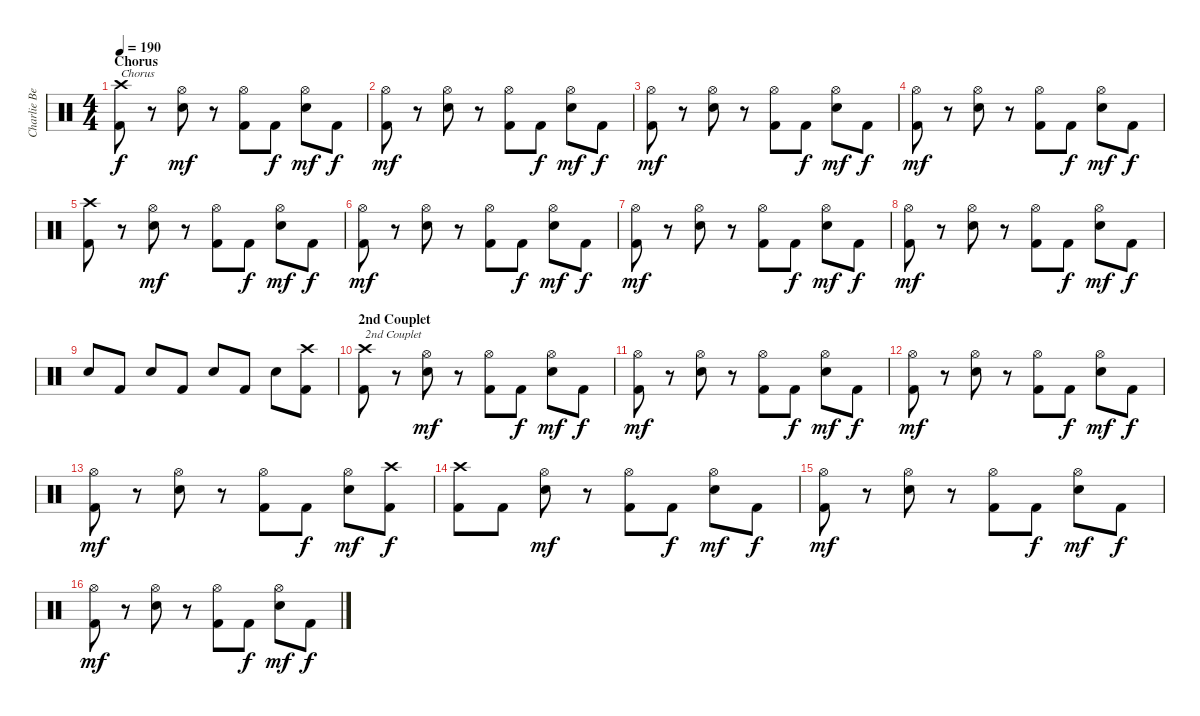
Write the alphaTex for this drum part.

\track ("Charlie Benante" "Charlie Be") {instrument percussion}
\staff {score}
\articulation defaults
\ts (4 4)
\section ("" "Chorus")
\tempo 190
\clef neutral
\ks c
("Crash high (hit)" "Kick (hit) 2").8{txt "Chorus" dy f} r.8 ("Hi-Hat (open)" "Electric Snare (hit)").8{dy mf} r.8 ("Hi-Hat (open)" "Kick (hit) 2").8 "Kick (hit) 2".8{dy f} ("Hi-Hat (open)" "Electric Snare (hit)").8{dy mf} "Kick (hit) 2".8{dy f} |
("Hi-Hat (open)" "Kick (hit) 2").8{dy mf} r.8 ("Hi-Hat (open)" "Electric Snare (hit)").8 r.8 ("Hi-Hat (open)" "Kick (hit) 2").8 "Kick (hit) 2".8{dy f} ("Hi-Hat (open)" "Electric Snare (hit)").8{dy mf} "Kick (hit) 2".8{dy f} |
("Hi-Hat (open)" "Kick (hit) 2").8{dy mf} r.8 ("Hi-Hat (open)" "Electric Snare (hit)").8 r.8 ("Hi-Hat (open)" "Kick (hit) 2").8 "Kick (hit) 2".8{dy f} ("Hi-Hat (open)" "Electric Snare (hit)").8{dy mf} "Kick (hit) 2".8{dy f} |
("Hi-Hat (open)" "Kick (hit) 2").8{dy mf} r.8 ("Hi-Hat (open)" "Electric Snare (hit)").8 r.8 ("Hi-Hat (open)" "Kick (hit) 2").8 "Kick (hit) 2".8{dy f} ("Hi-Hat (open)" "Electric Snare (hit)").8{dy mf} "Kick (hit) 2".8{dy f} |
("Crash high (hit)" "Kick (hit) 2").8 r.8 ("Hi-Hat (open)" "Electric Snare (hit)").8{dy mf} r.8 ("Hi-Hat (open)" "Kick (hit) 2").8 "Kick (hit) 2".8{dy f} ("Hi-Hat (open)" "Electric Snare (hit)").8{dy mf} "Kick (hit) 2".8{dy f} |
("Hi-Hat (open)" "Kick (hit) 2").8{dy mf} r.8 ("Hi-Hat (open)" "Electric Snare (hit)").8 r.8 ("Hi-Hat (open)" "Kick (hit) 2").8 "Kick (hit) 2".8{dy f} ("Hi-Hat (open)" "Electric Snare (hit)").8{dy mf} "Kick (hit) 2".8{dy f} |
("Hi-Hat (open)" "Kick (hit) 2").8{dy mf} r.8 ("Hi-Hat (open)" "Electric Snare (hit)").8 r.8 ("Hi-Hat (open)" "Kick (hit) 2").8 "Kick (hit) 2".8{dy f} ("Hi-Hat (open)" "Electric Snare (hit)").8{dy mf} "Kick (hit) 2".8{dy f} |
("Hi-Hat (open)" "Kick (hit) 2").8{dy mf} r.8 ("Hi-Hat (open)" "Electric Snare (hit)").8 r.8 ("Hi-Hat (open)" "Kick (hit) 2").8 "Kick (hit) 2".8{dy f} ("Hi-Hat (open)" "Electric Snare (hit)").8{dy mf} "Kick (hit) 2".8{dy f} |
"Electric Snare (hit)".8 "Kick (hit) 2".8 "Electric Snare (hit)".8 "Kick (hit) 2".8 "Electric Snare (hit)".8 "Kick (hit) 2".8 "Electric Snare (hit)".8 ("Crash high (hit)" "Kick (hit) 2").8 |
\section ("" "2nd Couplet")
("Crash high (hit)" "Kick (hit) 2").8{txt "2nd Couplet"} r.8 ("Hi-Hat (open)" "Electric Snare (hit)").8{dy mf} r.8 ("Hi-Hat (open)" "Kick (hit) 2").8 "Kick (hit) 2".8{dy f} ("Hi-Hat (open)" "Electric Snare (hit)").8{dy mf} "Kick (hit) 2".8{dy f} |
("Hi-Hat (open)" "Kick (hit) 2").8{dy mf} r.8 ("Hi-Hat (open)" "Electric Snare (hit)").8 r.8 ("Hi-Hat (open)" "Kick (hit) 2").8 "Kick (hit) 2".8{dy f} ("Hi-Hat (open)" "Electric Snare (hit)").8{dy mf} "Kick (hit) 2".8{dy f} |
("Hi-Hat (open)" "Kick (hit) 2").8{dy mf} r.8 ("Hi-Hat (open)" "Electric Snare (hit)").8 r.8 ("Hi-Hat (open)" "Kick (hit) 2").8 "Kick (hit) 2".8{dy f} ("Hi-Hat (open)" "Electric Snare (hit)").8{dy mf} "Kick (hit) 2".8{dy f} |
("Hi-Hat (open)" "Kick (hit) 2").8{dy mf} r.8 ("Hi-Hat (open)" "Electric Snare (hit)").8 r.8 ("Hi-Hat (open)" "Kick (hit) 2").8 "Kick (hit) 2".8{dy f} ("Hi-Hat (open)" "Electric Snare (hit)").8{dy mf} ("Crash high (hit)" "Kick (hit) 2").8{dy f} |
("Crash high (hit)" "Kick (hit) 2").8 "Kick (hit) 2".8 ("Hi-Hat (open)" "Electric Snare (hit)").8{dy mf} r.8 ("Hi-Hat (open)" "Kick (hit) 2").8 "Kick (hit) 2".8{dy f} ("Hi-Hat (open)" "Electric Snare (hit)").8{dy mf} "Kick (hit) 2".8{dy f} |
("Hi-Hat (open)" "Kick (hit) 2").8{dy mf} r.8 ("Hi-Hat (open)" "Electric Snare (hit)").8 r.8 ("Hi-Hat (open)" "Kick (hit) 2").8 "Kick (hit) 2".8{dy f} ("Hi-Hat (open)" "Electric Snare (hit)").8{dy mf} "Kick (hit) 2".8{dy f} |
("Hi-Hat (open)" "Kick (hit) 2").8{dy mf} r.8 ("Hi-Hat (open)" "Electric Snare (hit)").8 r.8 ("Hi-Hat (open)" "Kick (hit) 2").8 "Kick (hit) 2".8{dy f} ("Hi-Hat (open)" "Electric Snare (hit)").8{dy mf} "Kick (hit) 2".8{dy f}
